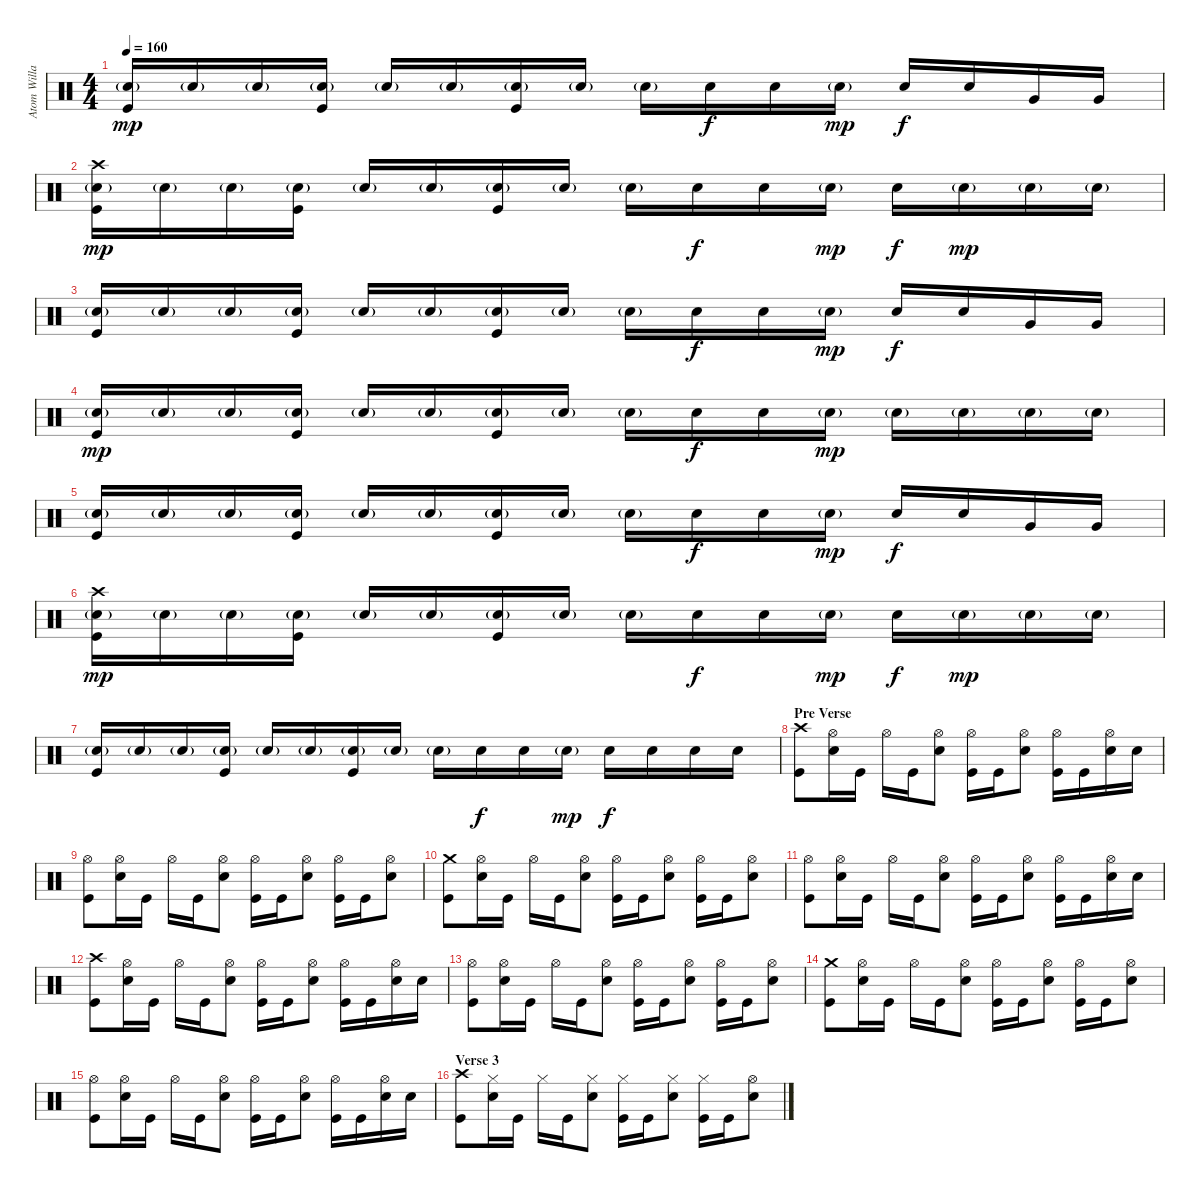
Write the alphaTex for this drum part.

\track ("Atom Willard - Drums" "Atom Willa") {instrument percussion}
\staff {score}
\articulation defaults
\ts (4 4)
\tempo 160
\clef neutral
\ks c
("Electric Snare (hit)"{g} "Kick (hit)").16{dy mp} "Electric Snare (hit)"{g}.16 "Electric Snare (hit)"{g}.16 ("Electric Snare (hit)"{g} "Kick (hit)").16 "Electric Snare (hit)"{g}.16 "Electric Snare (hit)"{g}.16 ("Electric Snare (hit)"{g} "Kick (hit)").16 "Electric Snare (hit)"{g}.16 "Electric Snare (hit)"{g}.16 "Electric Snare (hit)".16{dy f} "Electric Snare (hit)".16 "Electric Snare (hit)"{g}.16{dy mp} "Electric Snare (hit)".16{dy f} "Electric Snare (hit)".16 "Very Low Tom (hit)".16 "Very Low Tom (hit)".16 |
("Crash high (hit)" "Electric Snare (hit)"{g} "Kick (hit)").16{dy mp} "Electric Snare (hit)"{g}.16 "Electric Snare (hit)"{g}.16 ("Electric Snare (hit)"{g} "Kick (hit)").16 "Electric Snare (hit)"{g}.16 "Electric Snare (hit)"{g}.16 ("Electric Snare (hit)"{g} "Kick (hit)").16 "Electric Snare (hit)"{g}.16 "Electric Snare (hit)"{g}.16 "Electric Snare (hit)".16{dy f} "Electric Snare (hit)".16 "Electric Snare (hit)"{g}.16{dy mp} "Electric Snare (hit)".16{dy f} "Electric Snare (hit)"{g}.16{dy mp} "Electric Snare (hit)"{g}.16 "Electric Snare (hit)"{g}.16 |
("Electric Snare (hit)"{g} "Kick (hit)").16 "Electric Snare (hit)"{g}.16 "Electric Snare (hit)"{g}.16 ("Electric Snare (hit)"{g} "Kick (hit)").16 "Electric Snare (hit)"{g}.16 "Electric Snare (hit)"{g}.16 ("Electric Snare (hit)"{g} "Kick (hit)").16 "Electric Snare (hit)"{g}.16 "Electric Snare (hit)"{g}.16 "Electric Snare (hit)".16{dy f} "Electric Snare (hit)".16 "Electric Snare (hit)"{g}.16{dy mp} "Electric Snare (hit)".16{dy f} "Electric Snare (hit)".16 "Very Low Tom (hit)".16 "Very Low Tom (hit)".16 |
("Electric Snare (hit)"{g} "Kick (hit)").16{dy mp} "Electric Snare (hit)"{g}.16 "Electric Snare (hit)"{g}.16 ("Electric Snare (hit)"{g} "Kick (hit)").16 "Electric Snare (hit)"{g}.16 "Electric Snare (hit)"{g}.16 ("Electric Snare (hit)"{g} "Kick (hit)").16 "Electric Snare (hit)"{g}.16 "Electric Snare (hit)"{g}.16 "Electric Snare (hit)".16{dy f} "Electric Snare (hit)".16 "Electric Snare (hit)"{g}.16{dy mp} "Electric Snare (hit)"{g}.16 "Electric Snare (hit)"{g}.16 "Electric Snare (hit)"{g}.16 "Electric Snare (hit)"{g}.16 |
("Electric Snare (hit)"{g} "Kick (hit)").16 "Electric Snare (hit)"{g}.16 "Electric Snare (hit)"{g}.16 ("Electric Snare (hit)"{g} "Kick (hit)").16 "Electric Snare (hit)"{g}.16 "Electric Snare (hit)"{g}.16 ("Electric Snare (hit)"{g} "Kick (hit)").16 "Electric Snare (hit)"{g}.16 "Electric Snare (hit)"{g}.16 "Electric Snare (hit)".16{dy f} "Electric Snare (hit)".16 "Electric Snare (hit)"{g}.16{dy mp} "Electric Snare (hit)".16{dy f} "Electric Snare (hit)".16 "Very Low Tom (hit)".16 "Very Low Tom (hit)".16 |
("Crash high (hit)" "Electric Snare (hit)"{g} "Kick (hit)").16{dy mp} "Electric Snare (hit)"{g}.16 "Electric Snare (hit)"{g}.16 ("Electric Snare (hit)"{g} "Kick (hit)").16 "Electric Snare (hit)"{g}.16 "Electric Snare (hit)"{g}.16 ("Electric Snare (hit)"{g} "Kick (hit)").16 "Electric Snare (hit)"{g}.16 "Electric Snare (hit)"{g}.16 "Electric Snare (hit)".16{dy f} "Electric Snare (hit)".16 "Electric Snare (hit)"{g}.16{dy mp} "Electric Snare (hit)".16{dy f} "Electric Snare (hit)"{g}.16{dy mp} "Electric Snare (hit)"{g}.16 "Electric Snare (hit)"{g}.16 |
("Electric Snare (hit)"{g} "Kick (hit)").16 "Electric Snare (hit)"{g}.16 "Electric Snare (hit)"{g}.16 ("Electric Snare (hit)"{g} "Kick (hit)").16 "Electric Snare (hit)"{g}.16 "Electric Snare (hit)"{g}.16 ("Electric Snare (hit)"{g} "Kick (hit)").16 "Electric Snare (hit)"{g}.16 "Electric Snare (hit)"{g}.16 "Electric Snare (hit)".16{dy f} "Electric Snare (hit)".16 "Electric Snare (hit)"{g}.16{dy mp} "Electric Snare (hit)".16{dy f} "Electric Snare (hit)".16 "Electric Snare (hit)".16 "Electric Snare (hit)".16 |
\section ("" "Pre Verse")
("Crash high (hit)" "Kick (hit)").8 ("Hi-Hat (open)" "Electric Snare (hit)").16 "Kick (hit)".16 "Hi-Hat (open)".16 "Kick (hit)".16 ("Hi-Hat (open)" "Electric Snare (hit)").8 ("Hi-Hat (open)" "Kick (hit)").16 "Kick (hit)".16 ("Hi-Hat (open)" "Electric Snare (hit)").8 ("Hi-Hat (open)" "Kick (hit)").16 "Kick (hit)".16 ("Hi-Hat (open)" "Electric Snare (hit)").16 "Electric Snare (hit)".16 |
("Hi-Hat (open)" "Kick (hit)").8 ("Hi-Hat (open)" "Electric Snare (hit)").16 "Kick (hit)".16 "Hi-Hat (open)".16 "Kick (hit)".16 ("Hi-Hat (open)" "Electric Snare (hit)").8 ("Hi-Hat (open)" "Kick (hit)").16 "Kick (hit)".16 ("Hi-Hat (open)" "Electric Snare (hit)").8 ("Hi-Hat (open)" "Kick (hit)").16 "Kick (hit)".16 ("Hi-Hat (open)" "Electric Snare (hit)").8 |
("Crash medium (hit)" "Kick (hit)").8 ("Hi-Hat (open)" "Electric Snare (hit)").16 "Kick (hit)".16 "Hi-Hat (open)".16 "Kick (hit)".16 ("Hi-Hat (open)" "Electric Snare (hit)").8 ("Hi-Hat (open)" "Kick (hit)").16 "Kick (hit)".16 ("Hi-Hat (open)" "Electric Snare (hit)").8 ("Hi-Hat (open)" "Kick (hit)").16 "Kick (hit)".16 ("Hi-Hat (open)" "Electric Snare (hit)").8 |
("Hi-Hat (open)" "Kick (hit)").8 ("Hi-Hat (open)" "Electric Snare (hit)").16 "Kick (hit)".16 "Hi-Hat (open)".16 "Kick (hit)".16 ("Hi-Hat (open)" "Electric Snare (hit)").8 ("Hi-Hat (open)" "Kick (hit)").16 "Kick (hit)".16 ("Hi-Hat (open)" "Electric Snare (hit)").8 ("Hi-Hat (open)" "Kick (hit)").16 "Kick (hit)".16 ("Hi-Hat (open)" "Electric Snare (hit)").16 "Electric Snare (hit)".16 |
("Crash high (hit)" "Kick (hit)").8 ("Hi-Hat (open)" "Electric Snare (hit)").16 "Kick (hit)".16 "Hi-Hat (open)".16 "Kick (hit)".16 ("Hi-Hat (open)" "Electric Snare (hit)").8 ("Hi-Hat (open)" "Kick (hit)").16 "Kick (hit)".16 ("Hi-Hat (open)" "Electric Snare (hit)").8 ("Hi-Hat (open)" "Kick (hit)").16 "Kick (hit)".16 ("Hi-Hat (open)" "Electric Snare (hit)").16 "Electric Snare (hit)".16 |
("Hi-Hat (open)" "Kick (hit)").8 ("Hi-Hat (open)" "Electric Snare (hit)").16 "Kick (hit)".16 "Hi-Hat (open)".16 "Kick (hit)".16 ("Hi-Hat (open)" "Electric Snare (hit)").8 ("Hi-Hat (open)" "Kick (hit)").16 "Kick (hit)".16 ("Hi-Hat (open)" "Electric Snare (hit)").8 ("Hi-Hat (open)" "Kick (hit)").16 "Kick (hit)".16 ("Hi-Hat (open)" "Electric Snare (hit)").8 |
("Crash medium (hit)" "Kick (hit)").8 ("Hi-Hat (open)" "Electric Snare (hit)").16 "Kick (hit)".16 "Hi-Hat (open)".16 "Kick (hit)".16 ("Hi-Hat (open)" "Electric Snare (hit)").8 ("Hi-Hat (open)" "Kick (hit)").16 "Kick (hit)".16 ("Hi-Hat (open)" "Electric Snare (hit)").8 ("Hi-Hat (open)" "Kick (hit)").16 "Kick (hit)".16 ("Hi-Hat (open)" "Electric Snare (hit)").8 |
("Hi-Hat (open)" "Kick (hit)").8 ("Hi-Hat (open)" "Electric Snare (hit)").16 "Kick (hit)".16 "Hi-Hat (open)".16 "Kick (hit)".16 ("Hi-Hat (open)" "Electric Snare (hit)").8 ("Hi-Hat (open)" "Kick (hit)").16 "Kick (hit)".16 ("Hi-Hat (open)" "Electric Snare (hit)").8 ("Hi-Hat (open)" "Kick (hit)").16 "Kick (hit)".16 ("Hi-Hat (open)" "Electric Snare (hit)").16 "Electric Snare (hit)".16 |
\section ("" "Verse 3")
("Crash high (hit)" "Kick (hit)").8 ("Hi-Hat (closed)" "Electric Snare (hit)").16 "Kick (hit)".16 "Hi-Hat (closed)".16 "Kick (hit)".16 ("Hi-Hat (closed)" "Electric Snare (hit)").8 ("Hi-Hat (closed)" "Kick (hit)").16 "Kick (hit)".16 ("Hi-Hat (closed)" "Electric Snare (hit)").8 ("Hi-Hat (closed)" "Kick (hit)").16 "Kick (hit)".16 ("Hi-Hat (open)" "Electric Snare (hit)").8
